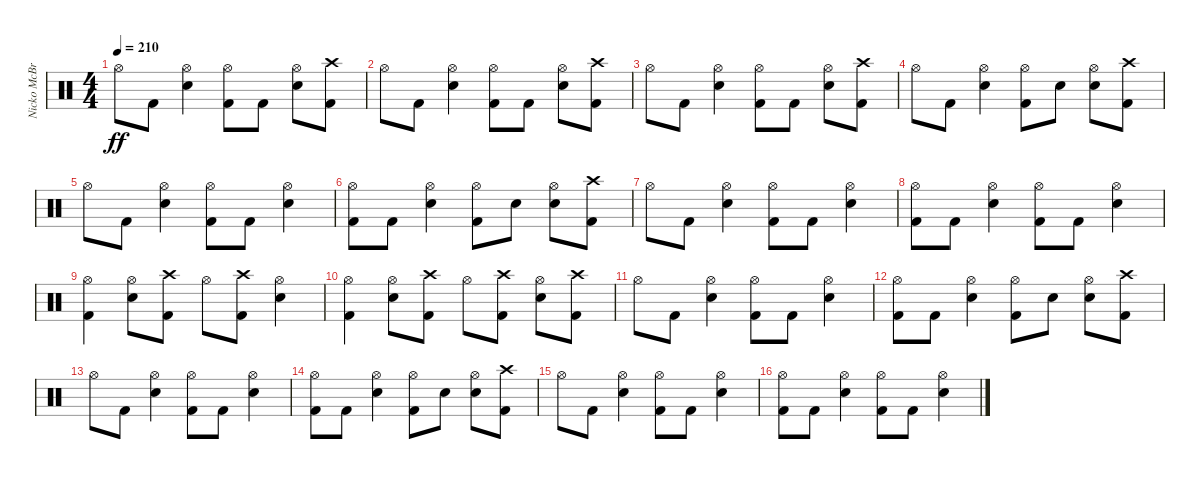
\track ("Nicko McBrain" "Nicko McBr") {instrument percussion}
\staff {score}
\articulation defaults
\ts (4 4)
\tempo 210
\clef neutral
\ks c "Hi-Hat (open)".8{dy ff} "Kick (hit) 2".8
("Snare (hit) 2" "Hi-Hat (open)").4 ("Kick (hit) 2" "Hi-Hat (open)").8 "Kick (hit) 2".8 ("Snare (hit) 2" "Hi-Hat (open)").8 ("Kick (hit) 2" "Crash high (hit)").8 |
"Hi-Hat (open)".8 "Kick (hit) 2".8 ("Snare (hit) 2" "Hi-Hat (open)").4 ("Kick (hit) 2" "Hi-Hat (open)").8 "Kick (hit) 2".8 ("Snare (hit) 2" "Hi-Hat (open)").8 ("Kick (hit) 2" "Crash high (hit)").8 |
"Hi-Hat (open)".8 "Kick (hit) 2".8 ("Snare (hit) 2" "Hi-Hat (open)").4 ("Kick (hit) 2" "Hi-Hat (open)").8 "Kick (hit) 2".8 ("Snare (hit) 2" "Hi-Hat (open)").8 ("Kick (hit) 2" "Crash high (hit)").8 |
"Hi-Hat (open)".8 "Kick (hit) 2".8 ("Snare (hit) 2" "Hi-Hat (open)").4 ("Kick (hit) 2" "Hi-Hat (open)").8 "Snare (hit) 2".8 ("Snare (hit) 2" "Hi-Hat (open)").8 ("Kick (hit) 2" "Crash high (hit)").8 |
"Hi-Hat (open)".8 "Kick (hit) 2".8 ("Snare (hit) 2" "Hi-Hat (open)").4 ("Kick (hit) 2" "Hi-Hat (open)").8 "Kick (hit) 2".8 ("Snare (hit) 2" "Hi-Hat (open)").4 |
("Kick (hit) 2" "Hi-Hat (open)").8 "Kick (hit) 2".8 ("Snare (hit) 2" "Hi-Hat (open)").4 ("Kick (hit) 2" "Hi-Hat (open)").8 "Snare (hit) 2".8 ("Snare (hit) 2" "Hi-Hat (open)").8 ("Kick (hit) 2" "Crash high (hit)").8 |
"Hi-Hat (open)".8 "Kick (hit) 2".8 ("Snare (hit) 2" "Hi-Hat (open)").4 ("Kick (hit) 2" "Hi-Hat (open)").8 "Kick (hit) 2".8 ("Snare (hit) 2" "Hi-Hat (open)").4 |
("Kick (hit) 2" "Hi-Hat (open)").8 "Kick (hit) 2".8 ("Snare (hit) 2" "Hi-Hat (open)").4 ("Kick (hit) 2" "Hi-Hat (open)").8 "Kick (hit) 2".8 ("Snare (hit) 2" "Hi-Hat (open)").4 |
("Kick (hit) 2" "Hi-Hat (open)").4 ("Snare (hit) 2" "Hi-Hat (open)").8 ("Kick (hit) 2" "Crash high (hit)").8 "Hi-Hat (open)".8 ("Kick (hit) 2" "Crash high (hit)").8 ("Snare (hit) 2" "Hi-Hat (open)").4 |
("Kick (hit) 2" "Hi-Hat (open)").4 ("Snare (hit) 2" "Hi-Hat (open)").8 ("Kick (hit) 2" "Crash high (hit)").8 "Hi-Hat (open)".8 ("Kick (hit) 2" "Crash high (hit)").8 ("Snare (hit) 2" "Hi-Hat (open)").8 ("Kick (hit) 2" "Crash high (hit)").8 |
"Hi-Hat (open)".8 "Kick (hit) 2".8 ("Snare (hit) 2" "Hi-Hat (open)").4 ("Kick (hit) 2" "Hi-Hat (open)").8 "Kick (hit) 2".8 ("Snare (hit) 2" "Hi-Hat (open)").4 |
("Kick (hit) 2" "Hi-Hat (open)").8 "Kick (hit) 2".8 ("Snare (hit) 2" "Hi-Hat (open)").4 ("Kick (hit) 2" "Hi-Hat (open)").8 "Snare (hit) 2".8 ("Snare (hit) 2" "Hi-Hat (open)").8 ("Kick (hit) 2" "Crash high (hit)").8 |
"Hi-Hat (open)".8 "Kick (hit) 2".8 ("Snare (hit) 2" "Hi-Hat (open)").4 ("Kick (hit) 2" "Hi-Hat (open)").8 "Kick (hit) 2".8 ("Snare (hit) 2" "Hi-Hat (open)").4 |
("Kick (hit) 2" "Hi-Hat (open)").8 "Kick (hit) 2".8 ("Snare (hit) 2" "Hi-Hat (open)").4 ("Kick (hit) 2" "Hi-Hat (open)").8 "Snare (hit) 2".8 ("Snare (hit) 2" "Hi-Hat (open)").8 ("Kick (hit) 2" "Crash high (hit)").8 |
"Hi-Hat (open)".8 "Kick (hit) 2".8 ("Snare (hit) 2" "Hi-Hat (open)").4 ("Kick (hit) 2" "Hi-Hat (open)").8 "Kick (hit) 2".8 ("Snare (hit) 2" "Hi-Hat (open)").4 |
("Kick (hit) 2" "Hi-Hat (open)").8 "Kick (hit) 2".8 ("Snare (hit) 2" "Hi-Hat (open)").4 ("Kick (hit) 2" "Hi-Hat (open)").8 "Kick (hit) 2".8 ("Snare (hit) 2" "Hi-Hat (open)").4
